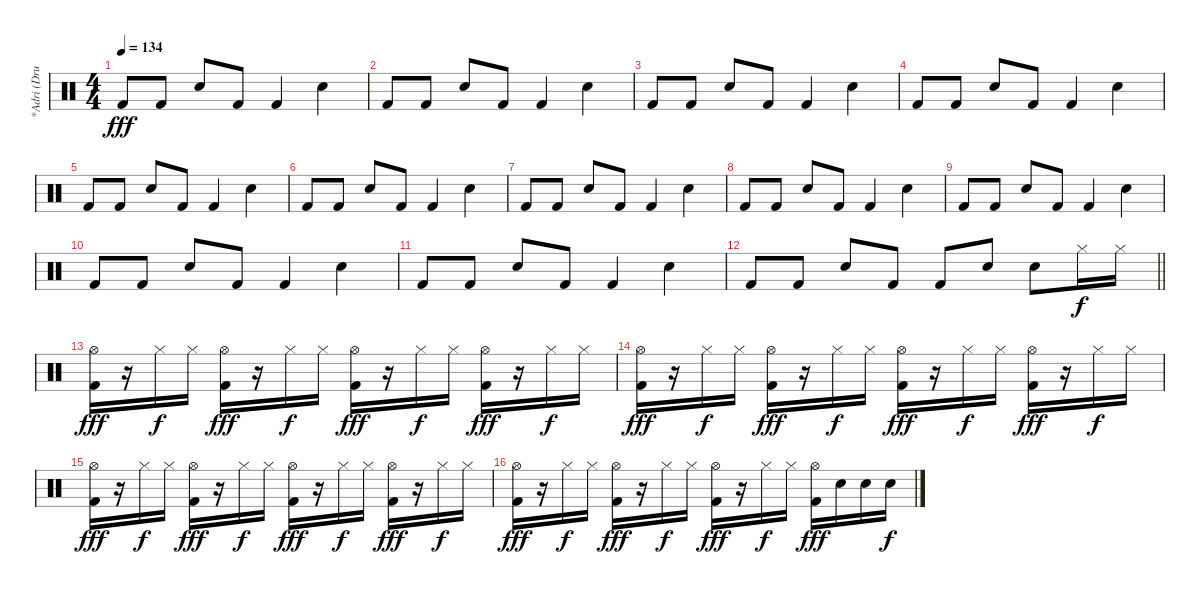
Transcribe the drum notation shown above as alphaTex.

\track ("*Adri (Drum)" "*Adri (Dru") {instrument percussion}
\staff {score}
\articulation defaults
\ts (4 4)
\tempo 134
\clef neutral
\ks c "Kick (hit) 2".8{dy fff} "Kick (hit) 2".8 "Snare (hit) 2".8 "Kick (hit) 2".8 "Kick (hit) 2".4 "Snare (hit) 2".4
|
"Kick (hit) 2".8 "Kick (hit) 2".8 "Snare (hit) 2".8 "Kick (hit) 2".8 "Kick (hit) 2".4 "Snare (hit) 2".4 |
"Kick (hit) 2".8 "Kick (hit) 2".8 "Snare (hit) 2".8 "Kick (hit) 2".8 "Kick (hit) 2".4 "Snare (hit) 2".4 |
"Kick (hit) 2".8 "Kick (hit) 2".8 "Snare (hit) 2".8 "Kick (hit) 2".8 "Kick (hit) 2".4 "Snare (hit) 2".4 |
"Kick (hit) 2".8 "Kick (hit) 2".8 "Snare (hit) 2".8 "Kick (hit) 2".8 "Kick (hit) 2".4 "Snare (hit) 2".4 |
"Kick (hit) 2".8 "Kick (hit) 2".8 "Snare (hit) 2".8 "Kick (hit) 2".8 "Kick (hit) 2".4 "Snare (hit) 2".4 |
"Kick (hit) 2".8 "Kick (hit) 2".8 "Snare (hit) 2".8 "Kick (hit) 2".8 "Kick (hit) 2".4 "Snare (hit) 2".4 |
"Kick (hit) 2".8 "Kick (hit) 2".8 "Snare (hit) 2".8 "Kick (hit) 2".8 "Kick (hit) 2".4 "Snare (hit) 2".4 |
"Kick (hit) 2".8 "Kick (hit) 2".8 "Snare (hit) 2".8 "Kick (hit) 2".8 "Kick (hit) 2".4 "Snare (hit) 2".4 |
"Kick (hit) 2".8 "Kick (hit) 2".8 "Snare (hit) 2".8 "Kick (hit) 2".8 "Kick (hit) 2".4 "Snare (hit) 2".4 |
"Kick (hit) 2".8 "Kick (hit) 2".8 "Snare (hit) 2".8 "Kick (hit) 2".8 "Kick (hit) 2".4 "Snare (hit) 2".4 |
\barLineRight lightlight "Kick (hit) 2".8 "Kick (hit) 2".8 "Snare (hit) 2".8 "Kick (hit) 2".8 "Kick (hit) 2".8 "Snare (hit) 2".8 "Snare (hit) 2".8 "Hi-Hat (closed)".16{dy f} "Hi-Hat (closed)".16
|
\section ("" "")
("Hi-Hat (open)" "Kick (hit) 2").16{dy fff} r.16 "Hi-Hat (closed)".16{dy f} "Hi-Hat (closed)".16 ("Hi-Hat (open)" "Kick (hit) 2").16{dy fff} r.16 "Hi-Hat (closed)".16{dy f} "Hi-Hat (closed)".16 ("Hi-Hat (open)" "Kick (hit) 2").16{dy fff} r.16 "Hi-Hat (closed)".16{dy f} "Hi-Hat (closed)".16 ("Hi-Hat (open)" "Kick (hit) 2").16{dy fff} r.16 "Hi-Hat (closed)".16{dy f} "Hi-Hat (closed)".16 |
("Hi-Hat (open)" "Kick (hit) 2").16{dy fff} r.16 "Hi-Hat (closed)".16{dy f} "Hi-Hat (closed)".16 ("Hi-Hat (open)" "Kick (hit) 2").16{dy fff} r.16 "Hi-Hat (closed)".16{dy f} "Hi-Hat (closed)".16 ("Hi-Hat (open)" "Kick (hit) 2").16{dy fff} r.16 "Hi-Hat (closed)".16{dy f} "Hi-Hat (closed)".16 ("Hi-Hat (open)" "Kick (hit) 2").16{dy fff} r.16 "Hi-Hat (closed)".16{dy f} "Hi-Hat (closed)".16 |
("Hi-Hat (open)" "Kick (hit) 2").16{dy fff} r.16 "Hi-Hat (closed)".16{dy f} "Hi-Hat (closed)".16 ("Hi-Hat (open)" "Kick (hit) 2").16{dy fff} r.16 "Hi-Hat (closed)".16{dy f} "Hi-Hat (closed)".16 ("Hi-Hat (open)" "Kick (hit) 2").16{dy fff} r.16 "Hi-Hat (closed)".16{dy f} "Hi-Hat (closed)".16 ("Hi-Hat (open)" "Kick (hit) 2").16{dy fff} r.16 "Hi-Hat (closed)".16{dy f} "Hi-Hat (closed)".16 |
("Hi-Hat (open)" "Kick (hit) 2").16{dy fff} r.16 "Hi-Hat (closed)".16{dy f} "Hi-Hat (closed)".16 ("Hi-Hat (open)" "Kick (hit) 2").16{dy fff} r.16 "Hi-Hat (closed)".16{dy f} "Hi-Hat (closed)".16 ("Hi-Hat (open)" "Kick (hit) 2").16{dy fff} r.16 "Hi-Hat (closed)".16{dy f} "Hi-Hat (closed)".16 ("Hi-Hat (open)" "Kick (hit) 2").16{dy fff} "Snare (hit) 2".16 "Snare (hit) 2".16 "Snare (hit) 2".16{dy f}
